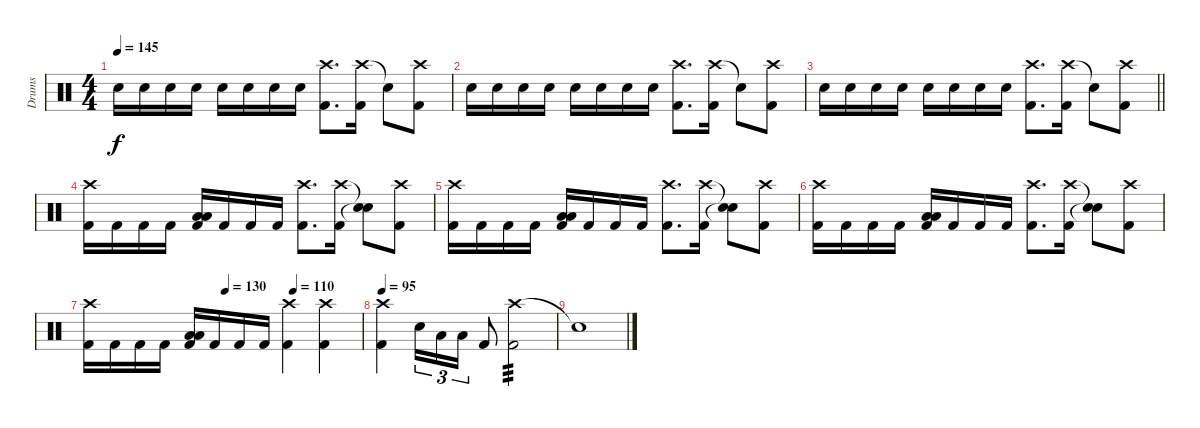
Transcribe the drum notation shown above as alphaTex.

\track ("Drums" "Drums") {instrument percussion}
\staff {score}
\articulation defaults
\ts (4 4)
\tempo 145
\clef neutral
\ks c "Snare (hit) 2".16{dy f} "Snare (hit) 2".16 "Snare (hit) 2".16 "Snare (hit) 2".16 "Snare (hit) 2".16 "Snare (hit) 2".16 "Snare (hit) 2".16 "Snare (hit) 2".16
("Crash high (hit)" "Kick (hit) 2").8{d} ("Crash high (hit)" "Kick (hit) 2").16 "Snare (hit)"{t}.8 ("Crash high (hit)" "Kick (hit) 2").8 |
"Snare (hit) 2".16 "Snare (hit) 2".16 "Snare (hit) 2".16 "Snare (hit) 2".16 "Snare (hit) 2".16 "Snare (hit) 2".16 "Snare (hit) 2".16 "Snare (hit) 2".16 ("Crash high (hit)" "Kick (hit) 2").8{d} ("Crash high (hit)" "Kick (hit) 2").16 "Snare (hit)"{t}.8 ("Crash high (hit)" "Kick (hit) 2").8 |
\barLineRight lightlight "Snare (hit) 2".16 "Snare (hit) 2".16 "Snare (hit) 2".16 "Snare (hit) 2".16 "Snare (hit) 2".16 "Snare (hit) 2".16 "Snare (hit) 2".16 "Snare (hit) 2".16
("Crash high (hit)" "Kick (hit) 2").8{d} ("Crash high (hit)" "Kick (hit) 2").16 "Snare (hit)"{t}.8 ("Crash high (hit)" "Kick (hit) 2").8 |
("Crash high (hit)" "Kick (hit) 2").16 "Kick (hit) 2".16 "Kick (hit) 2".16 "Kick (hit) 2".16 ("Low Floor Tom (hit)" "Low Floor Tom (hit)" "Kick (hit) 2").16 "Kick (hit) 2".16 "Kick (hit) 2".16 "Kick (hit) 2".16 ("Crash high (hit)" "Kick (hit) 2").8{d} ("Crash high (hit)" "Kick (hit) 2").16 ("Snare (hit)"{t} "Snare (hit)"{t}).8 ("Crash high (hit)" "Kick (hit) 2").8 |
("Crash high (hit)" "Kick (hit) 2").16 "Kick (hit) 2".16 "Kick (hit) 2".16 "Kick (hit) 2".16 ("Low Floor Tom (hit)" "Low Floor Tom (hit)" "Kick (hit) 2").16 "Kick (hit) 2".16 "Kick (hit) 2".16 "Kick (hit) 2".16 ("Crash high (hit)" "Kick (hit) 2").8{d} ("Crash high (hit)" "Kick (hit) 2").16 ("Snare (hit)"{t} "Snare (hit)"{t}).8 ("Crash high (hit)" "Kick (hit) 2").8 |
("Crash high (hit)" "Kick (hit) 2").16 "Kick (hit) 2".16 "Kick (hit) 2".16 "Kick (hit) 2".16 ("Low Floor Tom (hit)" "Low Floor Tom (hit)" "Kick (hit) 2").16 "Kick (hit) 2".16 "Kick (hit) 2".16 "Kick (hit) 2".16 ("Crash high (hit)" "Kick (hit) 2").8{d} ("Crash high (hit)" "Kick (hit) 2").16 ("Snare (hit)"{t} "Snare (hit)"{t}).8 ("Crash high (hit)" "Kick (hit) 2").8 |
\tempo (130 0.5)
\tempo (110 0.75)
("Crash high (hit)" "Kick (hit) 2").16 "Kick (hit) 2".16 "Kick (hit) 2".16 "Kick (hit) 2".16 ("Low Floor Tom (hit)" "Low Floor Tom (hit)" "Kick (hit) 2").16 "Kick (hit) 2".16 "Kick (hit) 2".16 "Kick (hit) 2".16 ("Crash high (hit)" "Kick (hit) 2").4 ("Crash high (hit)" "Kick (hit) 2").4 |
\tempo 95
("Crash high (hit)" "Kick (hit) 2").4 "Snare (hit) 2".16{tu (3 2)} "Low Tom (hit)".16{tu (3 2)} "Low Floor Tom (hit)".16{tu (3 2)} "Kick (hit) 2".8 ("Crash high (hit)" "Kick (hit) 2").2{tp 3} |
"Snare (hit)"{t}.1
